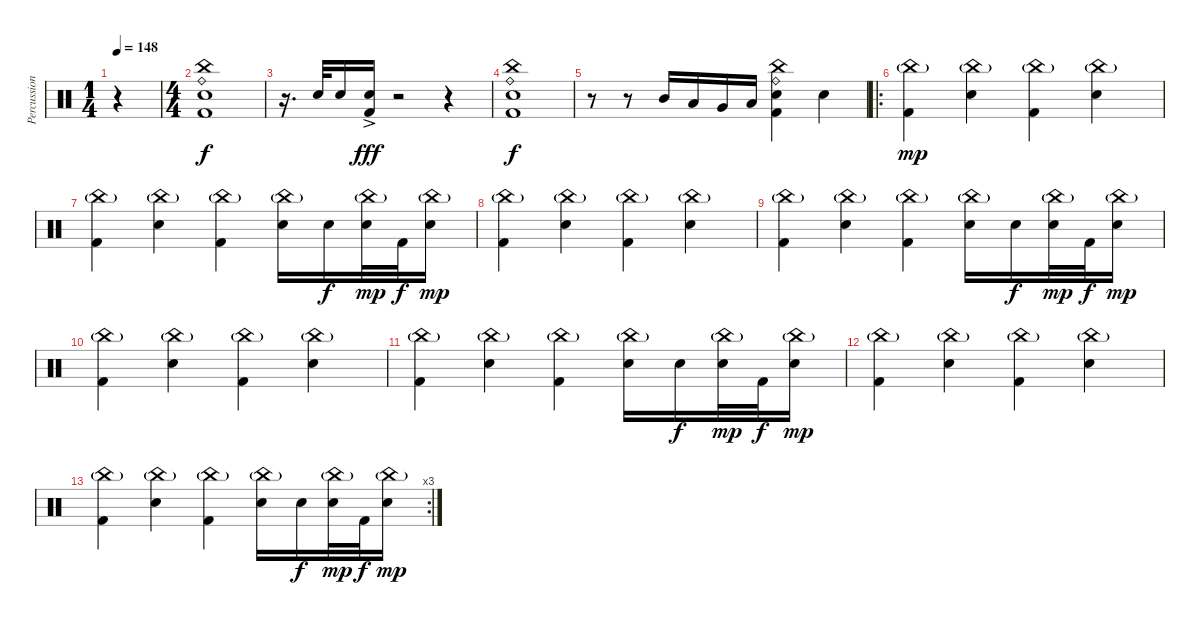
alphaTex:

\track ("Percussion" "Percussion") {instrument percussion}
\staff {score}
\articulation defaults
\ts (1 4)
\tempo 148
\clef neutral
\ks c
r.4{dy f} |
\ts (4 4)
("Ride (bell)" "China (hit)" "Electric Snare (hit)" "Kick (hit) 2").1 |
r.16{d} "Electric Snare (hit)".32 "Electric Snare (hit)".16 ("Electric Snare (hit)"{ac} "Kick (hit) 2").16{dy fff} r.2 r.4 |
("Ride (bell)" "China (hit)" "Electric Snare (hit)" "Kick (hit) 2").1{dy f} |
r.8 r.8 "Mid Tom (hit)".16 "Low Tom (hit)".16 "Very Low Tom (hit)".16 "Low Floor Tom (hit)".16 ("Ride (bell)" "China (hit)" "Electric Snare (hit)" "Kick (hit) 2").4 "Electric Snare (hit)".4 |
\ro
("China (hit)"{g} "Kick (hit) 2").4{dy mp} ("China (hit)"{g} "Electric Snare (hit)").4 ("China (hit)"{g} "Kick (hit) 2").4 ("China (hit)"{g} "Electric Snare (hit)").4 |
("China (hit)"{g} "Kick (hit) 2").4 ("China (hit)"{g} "Electric Snare (hit)").4 ("China (hit)"{g} "Kick (hit) 2").4 ("China (hit)"{g} "Electric Snare (hit)").16 "Electric Snare (hit)".16{dy f} ("China (hit)"{g} "Electric Snare (hit)").32{dy mp} "Kick (hit) 2".32{dy f} ("China (hit)"{g} "Electric Snare (hit)").16{dy mp} |
("China (hit)"{g} "Kick (hit) 2").4 ("China (hit)"{g} "Electric Snare (hit)").4 ("China (hit)"{g} "Kick (hit) 2").4 ("China (hit)"{g} "Electric Snare (hit)").4 |
("China (hit)"{g} "Kick (hit) 2").4 ("China (hit)"{g} "Electric Snare (hit)").4 ("China (hit)"{g} "Kick (hit) 2").4 ("China (hit)"{g} "Electric Snare (hit)").16 "Electric Snare (hit)".16{dy f} ("China (hit)"{g} "Electric Snare (hit)").32{dy mp} "Kick (hit) 2".32{dy f} ("China (hit)"{g} "Electric Snare (hit)").16{dy mp} |
("China (hit)"{g} "Kick (hit) 2").4 ("China (hit)"{g} "Electric Snare (hit)").4 ("China (hit)"{g} "Kick (hit) 2").4 ("China (hit)"{g} "Electric Snare (hit)").4 |
("China (hit)"{g} "Kick (hit) 2").4 ("China (hit)"{g} "Electric Snare (hit)").4 ("China (hit)"{g} "Kick (hit) 2").4 ("China (hit)"{g} "Electric Snare (hit)").16 "Electric Snare (hit)".16{dy f} ("China (hit)"{g} "Electric Snare (hit)").32{dy mp} "Kick (hit) 2".32{dy f} ("China (hit)"{g} "Electric Snare (hit)").16{dy mp} |
("China (hit)"{g} "Kick (hit) 2").4 ("China (hit)"{g} "Electric Snare (hit)").4 ("China (hit)"{g} "Kick (hit) 2").4 ("China (hit)"{g} "Electric Snare (hit)").4 |
\rc 3
("China (hit)"{g} "Kick (hit) 2").4 ("China (hit)"{g} "Electric Snare (hit)").4 ("China (hit)"{g} "Kick (hit) 2").4 ("China (hit)"{g} "Electric Snare (hit)").16 "Electric Snare (hit)".16{dy f} ("China (hit)"{g} "Electric Snare (hit)").32{dy mp} "Kick (hit) 2".32{dy f} ("China (hit)"{g} "Electric Snare (hit)").16{dy mp}
